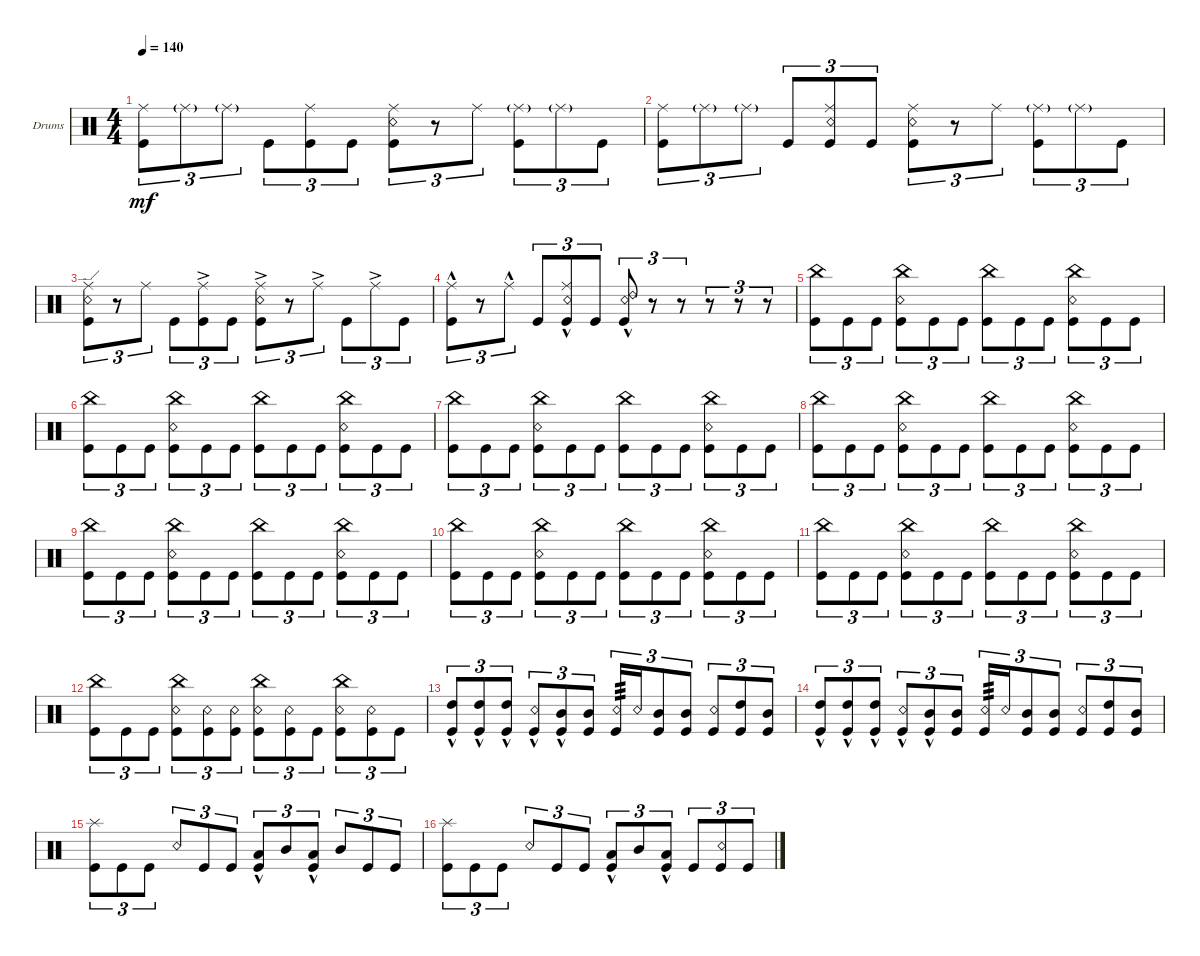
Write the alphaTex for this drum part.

\defaultSystemsLayout 4
\bracketExtendMode groupsimilarinstruments
\firstSystemTrackNameOrientation horizontal
\otherSystemsTrackNameOrientation horizontal
\track ("Drumkit" "Drums") {instrument percussion}
\staff {score}
\articulation defaults
\ts (4 4)
\tempo 140
\clef neutral
\ks c
("Kick (hit)" "Ride (middle)").8{tu (3 2) dy mf} "Ride (middle)"{g}.8{tu (3 2)} "Ride (middle)"{g}.8{tu (3 2)} "Kick (hit)".8{tu (3 2)} ("Kick (hit)" "Ride (middle)").8{tu (3 2)} "Kick (hit)".8{tu (3 2)} ("Kick (hit)" "Snare (rim shot)" "Ride (middle)").8{tu (3 2)} r.8{tu (3 2)} "Ride (middle)".8{tu (3 2)} ("Kick (hit)" "Ride (middle)"{g}).8{tu (3 2)} "Ride (middle)"{g}.8{tu (3 2)} "Kick (hit)".8{tu (3 2)} |
("Kick (hit)" "Ride (middle)").8{tu (3 2)} "Ride (middle)"{g}.8{tu (3 2)} "Ride (middle)"{g}.8{tu (3 2)} "Kick (hit)".8{tu (3 2)} ("Kick (hit)" "Ride (middle)" "Snare (rim shot)").8{tu (3 2)} "Kick (hit)".8{tu (3 2)} ("Kick (hit)" "Ride (middle)" "Snare (rim shot)").8{tu (3 2)} r.8{tu (3 2)} "Ride (middle)".8{tu (3 2)} ("Kick (hit)" "Ride (middle)"{g}).8{tu (3 2)} "Ride (middle)"{g}.8{tu (3 2)} "Kick (hit)".8{tu (3 2)} |
("Kick (hit)" "Ride (edge)" "Snare (rim shot)").8{tu (3 2)} r.8{tu (3 2)} "Ride (middle)".8{tu (3 2)} "Kick (hit)".8{tu (3 2)} ("Kick (hit)" "Ride (middle)"{ac}).8{tu (3 2)} "Kick (hit)".8{tu (3 2)} ("Kick (hit)" "Snare (rim shot)" "Ride (middle)"{ac}).8{tu (3 2)} r.8{tu (3 2)} "Ride (middle)"{ac}.8{tu (3 2)} "Kick (hit)".8{tu (3 2)} "Ride (middle)"{ac}.8{tu (3 2)} "Kick (hit)".8{tu (3 2)} |
("Kick (hit)" "Ride (middle)"{hac}).8{tu (3 2)} r.8{tu (3 2)} "Ride (middle)"{hac}.8{tu (3 2)} "Kick (hit)".8{tu (3 2)} ("Kick (hit)" "Ride (middle)"{hac} "Snare (rim shot)").8{tu (3 2)} "Kick (hit)".8{tu (3 2)} ("Kick (hit)" "Ride (bell) 2"{hac} "Snare (rim shot)").8{tu (3 2)} r.8{tu (3 2)} r.8{tu (3 2)} r.8{tu (3 2)} r.8{tu (3 2)} r.8{tu (3 2)} |
("Kick (hit)" "China (hit)").8{tu (3 2)} "Kick (hit)".8{tu (3 2)} "Kick (hit)".8{tu (3 2)} ("Kick (hit)" "Snare (rim shot)" "China (hit)").8{tu (3 2)} "Kick (hit)".8{tu (3 2)} "Kick (hit)".8{tu (3 2)} ("Kick (hit)" "China (hit)").8{tu (3 2)} "Kick (hit)".8{tu (3 2)} "Kick (hit)".8{tu (3 2)} ("Kick (hit)" "China (hit)" "Snare (rim shot)").8{tu (3 2)} "Kick (hit)".8{tu (3 2)} "Kick (hit)".8{tu (3 2)} |
("Kick (hit)" "China (hit)").8{tu (3 2)} "Kick (hit)".8{tu (3 2)} "Kick (hit)".8{tu (3 2)} ("Kick (hit)" "Snare (rim shot)" "China (hit)").8{tu (3 2)} "Kick (hit)".8{tu (3 2)} "Kick (hit)".8{tu (3 2)} ("Kick (hit)" "China (hit)").8{tu (3 2)} "Kick (hit)".8{tu (3 2)} "Kick (hit)".8{tu (3 2)} ("Kick (hit)" "China (hit)" "Snare (rim shot)").8{tu (3 2)} "Kick (hit)".8{tu (3 2)} "Kick (hit)".8{tu (3 2)} |
("Kick (hit)" "China (hit)").8{tu (3 2)} "Kick (hit)".8{tu (3 2)} "Kick (hit)".8{tu (3 2)} ("Kick (hit)" "Snare (rim shot)" "China (hit)").8{tu (3 2)} "Kick (hit)".8{tu (3 2)} "Kick (hit)".8{tu (3 2)} ("Kick (hit)" "China (hit)").8{tu (3 2)} "Kick (hit)".8{tu (3 2)} "Kick (hit)".8{tu (3 2)} ("Kick (hit)" "China (hit)" "Snare (rim shot)").8{tu (3 2)} "Kick (hit)".8{tu (3 2)} "Kick (hit)".8{tu (3 2)} |
("Kick (hit)" "China (hit)").8{tu (3 2)} "Kick (hit)".8{tu (3 2)} "Kick (hit)".8{tu (3 2)} ("Kick (hit)" "Snare (rim shot)" "China (hit)").8{tu (3 2)} "Kick (hit)".8{tu (3 2)} "Kick (hit)".8{tu (3 2)} ("Kick (hit)" "China (hit)").8{tu (3 2)} "Kick (hit)".8{tu (3 2)} "Kick (hit)".8{tu (3 2)} ("Kick (hit)" "China (hit)" "Snare (rim shot)").8{tu (3 2)} "Kick (hit)".8{tu (3 2)} "Kick (hit)".8{tu (3 2)} |
("Kick (hit)" "China (hit)").8{tu (3 2)} "Kick (hit)".8{tu (3 2)} "Kick (hit)".8{tu (3 2)} ("Kick (hit)" "Snare (rim shot)" "China (hit)").8{tu (3 2)} "Kick (hit)".8{tu (3 2)} "Kick (hit)".8{tu (3 2)} ("Kick (hit)" "China (hit)").8{tu (3 2)} "Kick (hit)".8{tu (3 2)} "Kick (hit)".8{tu (3 2)} ("Kick (hit)" "China (hit)" "Snare (rim shot)").8{tu (3 2)} "Kick (hit)".8{tu (3 2)} "Kick (hit)".8{tu (3 2)} |
("Kick (hit)" "China (hit)").8{tu (3 2)} "Kick (hit)".8{tu (3 2)} "Kick (hit)".8{tu (3 2)} ("Kick (hit)" "Snare (rim shot)" "China (hit)").8{tu (3 2)} "Kick (hit)".8{tu (3 2)} "Kick (hit)".8{tu (3 2)} ("Kick (hit)" "China (hit)").8{tu (3 2)} "Kick (hit)".8{tu (3 2)} "Kick (hit)".8{tu (3 2)} ("Kick (hit)" "China (hit)" "Snare (rim shot)").8{tu (3 2)} "Kick (hit)".8{tu (3 2)} "Kick (hit)".8{tu (3 2)} |
("Kick (hit)" "China (hit)").8{tu (3 2)} "Kick (hit)".8{tu (3 2)} "Kick (hit)".8{tu (3 2)} ("Kick (hit)" "Snare (rim shot)" "China (hit)").8{tu (3 2)} "Kick (hit)".8{tu (3 2)} "Kick (hit)".8{tu (3 2)} ("Kick (hit)" "China (hit)").8{tu (3 2)} "Kick (hit)".8{tu (3 2)} "Kick (hit)".8{tu (3 2)} ("Kick (hit)" "China (hit)" "Snare (rim shot)").8{tu (3 2)} "Kick (hit)".8{tu (3 2)} "Kick (hit)".8{tu (3 2)} |
("Kick (hit)" "China (hit)").8{tu (3 2)} "Kick (hit)".8{tu (3 2)} "Kick (hit)".8{tu (3 2)} ("Kick (hit)" "Snare (rim shot)" "China (hit)").8{tu (3 2)} ("Kick (hit)" "Snare (rim shot)").8{tu (3 2)} ("Kick (hit)" "Snare (rim shot)").8{tu (3 2)} ("Kick (hit)" "China (hit)" "Snare (rim shot)").8{tu (3 2)} ("Kick (hit)" "Snare (rim shot)").8{tu (3 2)} "Kick (hit)".8{tu (3 2)} ("Kick (hit)" "China (hit)" "Snare (rim shot)").8{tu (3 2)} ("Kick (hit)" "Snare (rim shot)").8{tu (3 2)} "Kick (hit)".8{tu (3 2)} |
("Kick (hit)"{hac} "High Tom (hit)"{hac}).8{tu (3 2)} ("Kick (hit)"{hac} "High Tom (hit)"{hac}).8{tu (3 2)} ("Kick (hit)"{hac} "High Tom (hit)").8{tu (3 2)} ("Kick (hit)"{hac} "Snare (rim shot)"{hac}).8{tu (3 2)} ("Kick (hit)"{hac} "Mid Tom (hit)"{hac}).8{tu (3 2)} ("Kick (hit)" "Mid Tom (hit)").8{tu (3 2)} ("Kick (hit)" "Snare (rim shot)").16{tu (3 2) tp 3} "Snare (rim shot)".16{tu (3 2)} ("Mid Tom (hit)" "Kick (hit)").8{tu (3 2)} ("Kick (hit)" "Mid Tom (hit)").8{tu (3 2)} ("Kick (hit)" "Snare (rim shot)").8{tu (3 2)} ("Kick (hit)" "High Tom (hit)").8{tu (3 2)} ("Kick (hit)" "Mid Tom (hit)").8{tu (3 2)} |
("Kick (hit)"{hac} "High Tom (hit)"{hac}).8{tu (3 2)} ("Kick (hit)"{hac} "High Tom (hit)"{hac}).8{tu (3 2)} ("Kick (hit)"{hac} "High Tom (hit)").8{tu (3 2)} ("Kick (hit)"{hac} "Snare (rim shot)"{hac}).8{tu (3 2)} ("Kick (hit)"{hac} "Mid Tom (hit)"{hac}).8{tu (3 2)} ("Kick (hit)" "Mid Tom (hit)").8{tu (3 2)} ("Kick (hit)" "Snare (rim shot)").16{tu (3 2) tp 3} "Snare (rim shot)".16{tu (3 2)} ("Mid Tom (hit)" "Kick (hit)").8{tu (3 2)} ("Kick (hit)" "Mid Tom (hit)").8{tu (3 2)} ("Kick (hit)" "Snare (rim shot)").8{tu (3 2)} ("Kick (hit)" "High Tom (hit)").8{tu (3 2)} ("Kick (hit)" "Mid Tom (hit)").8{tu (3 2)} |
("Splash (hit)" "Kick (hit)").8{tu (3 2)} "Kick (hit)".8{tu (3 2)} "Kick (hit)".8{tu (3 2)} "Snare (rim shot)".8{tu (3 2)} "Kick (hit)".8{tu (3 2)} "Kick (hit)".8{tu (3 2)} ("Low Tom (hit)"{hac} "Kick (hit)").8{tu (3 2)} "Mid Tom (hit)".8{tu (3 2)} ("Low Tom (hit)"{hac} "Kick (hit)").8{tu (3 2)} "Mid Tom (hit)".8{tu (3 2)} "Kick (hit)".8{tu (3 2)} "Kick (hit)".8{tu (3 2)} |
("Splash (hit)" "Kick (hit)").8{tu (3 2)} "Kick (hit)".8{tu (3 2)} "Kick (hit)".8{tu (3 2)} "Snare (rim shot)".8{tu (3 2)} "Kick (hit)".8{tu (3 2)} "Kick (hit)".8{tu (3 2)} ("Low Tom (hit)"{hac} "Kick (hit)").8{tu (3 2)} "Mid Tom (hit)".8{tu (3 2)} ("Low Tom (hit)"{hac} "Kick (hit)").8{tu (3 2)} "Kick (hit)".8{tu (3 2)} ("Kick (hit)" "Snare (rim shot)").8{tu (3 2)} "Kick (hit)".8{tu (3 2)}
